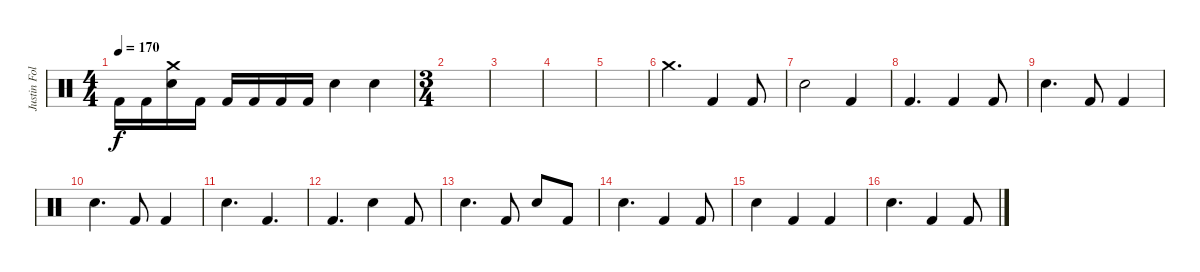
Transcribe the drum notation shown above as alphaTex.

\track ("Justin Foley" "Justin Fol") {instrument percussion}
\staff {score}
\articulation defaults
\ts (4 4)
\tempo 170
\clef neutral
\ks c "Kick (hit) 2".16{dy f} "Kick (hit) 2".16
("Crash medium (hit)" "Snare (hit) 2").16 "Kick (hit) 2".16 "Kick (hit) 2".16 "Kick (hit) 2".16 "Kick (hit) 2".16 "Kick (hit) 2".16 "Snare (hit) 2".4 "Snare (hit) 2".4 |
\ts (3 4)
|
|
|
|
"Crash medium (hit)".4{d} "Kick (hit) 2".4 "Kick (hit) 2".8 |
"Snare (hit) 2".2 "Kick (hit) 2".4 |
"Kick (hit) 2".4{d} "Kick (hit) 2".4 "Kick (hit) 2".8 |
"Snare (hit) 2".4{d} "Kick (hit) 2".8 "Kick (hit) 2".4 |
"Snare (hit) 2".4{d} "Kick (hit) 2".8 "Kick (hit) 2".4 |
"Snare (hit) 2".4{d} "Kick (hit) 2".4{d} |
"Kick (hit) 2".4{d} "Snare (hit) 2".4 "Kick (hit) 2".8 |
"Snare (hit) 2".4{d} "Kick (hit) 2".8 "Snare (hit) 2".8 "Kick (hit) 2".8 |
"Snare (hit) 2".4{d} "Kick (hit) 2".4 "Kick (hit) 2".8 |
"Snare (hit) 2".4 "Kick (hit) 2".4 "Kick (hit) 2".4 |
"Snare (hit) 2".4{d} "Kick (hit) 2".4 "Kick (hit) 2".8
